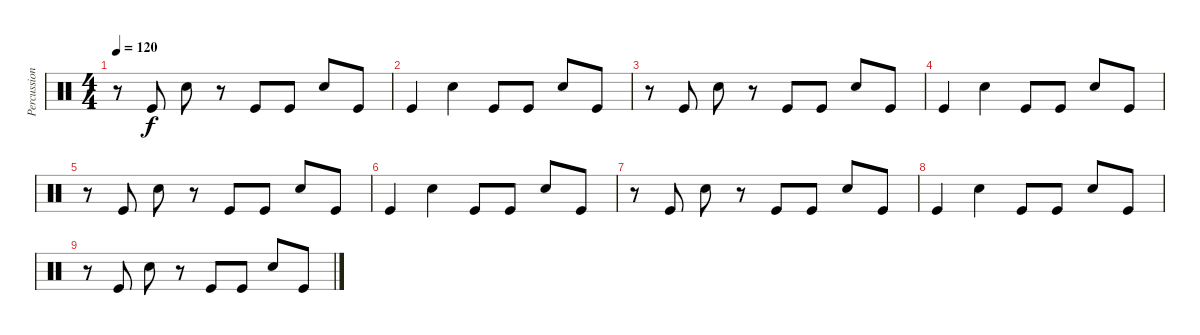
\track ("Percussions" "Percussion") {instrument percussion}
\staff {score}
\articulation defaults
\ts (4 4)
\tempo 120
\clef neutral
\ks c
r.8{dy f} "Kick (hit)".8 "Electric Snare (hit)".8 r.8 "Kick (hit)".8 "Kick (hit)".8 "Electric Snare (hit)".8 "Kick (hit)".8 |
"Kick (hit)".4 "Electric Snare (hit)".4 "Kick (hit)".8 "Kick (hit)".8 "Electric Snare (hit)".8 "Kick (hit)".8 |
r.8 "Kick (hit)".8 "Electric Snare (hit)".8 r.8 "Kick (hit)".8 "Kick (hit)".8 "Electric Snare (hit)".8 "Kick (hit)".8 |
"Kick (hit)".4 "Electric Snare (hit)".4 "Kick (hit)".8 "Kick (hit)".8 "Electric Snare (hit)".8 "Kick (hit)".8 |
r.8 "Kick (hit)".8 "Electric Snare (hit)".8 r.8 "Kick (hit)".8 "Kick (hit)".8 "Electric Snare (hit)".8 "Kick (hit)".8 |
"Kick (hit)".4 "Electric Snare (hit)".4 "Kick (hit)".8 "Kick (hit)".8 "Electric Snare (hit)".8 "Kick (hit)".8 |
r.8 "Kick (hit)".8 "Electric Snare (hit)".8 r.8 "Kick (hit)".8 "Kick (hit)".8 "Electric Snare (hit)".8 "Kick (hit)".8 |
"Kick (hit)".4 "Electric Snare (hit)".4 "Kick (hit)".8 "Kick (hit)".8 "Electric Snare (hit)".8 "Kick (hit)".8 |
r.8 "Kick (hit)".8 "Electric Snare (hit)".8 r.8 "Kick (hit)".8 "Kick (hit)".8 "Electric Snare (hit)".8 "Kick (hit)".8
